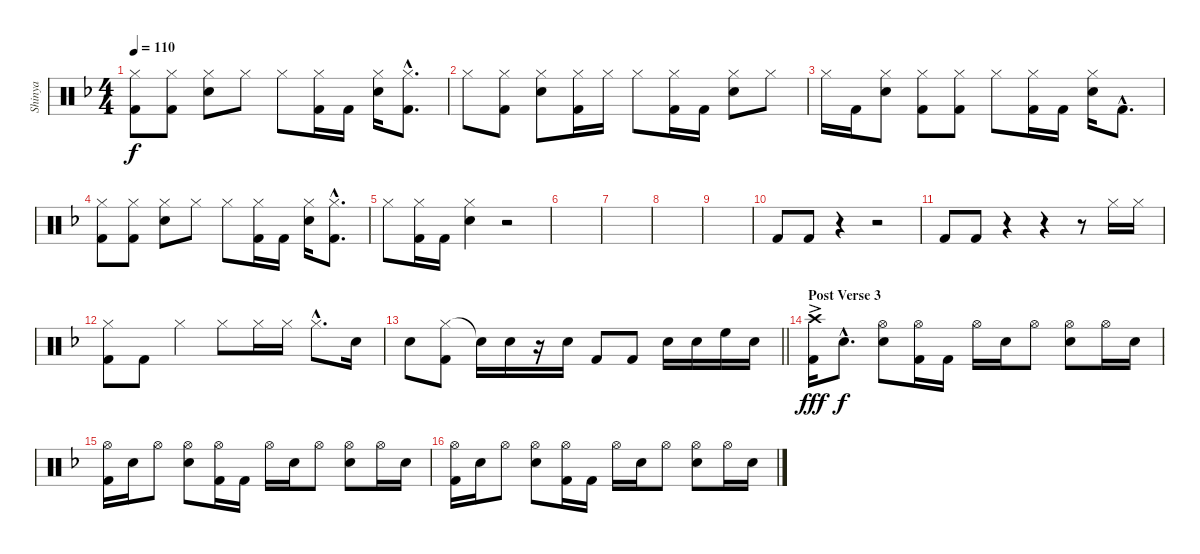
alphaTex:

\track ("Shinya" "Shinya") {instrument percussion}
\staff {score}
\articulation defaults
\ts (4 4)
\tempo 110
\clef neutral
\ks f
("Hi-Hat (closed)" "Kick (hit) 2").8{dy f} ("Hi-Hat (closed)" "Kick (hit) 2").8 ("Hi-Hat (closed)" "Snare (hit) 2").8 "Hi-Hat (closed)".8 "Hi-Hat (closed)".8 ("Hi-Hat (closed)" "Kick (hit) 2").16 "Kick (hit) 2".16 ("Hi-Hat (closed)" "Snare (hit) 2").16 ("Hi-Hat (closed)"{hac} "Kick (hit) 2"{hac}).8{d} |
"Hi-Hat (closed)".8 ("Hi-Hat (closed)" "Kick (hit) 2").8 ("Hi-Hat (closed)" "Snare (hit) 2").8 ("Hi-Hat (closed)" "Kick (hit) 2").16 "Hi-Hat (closed)".16 "Hi-Hat (closed)".8 ("Hi-Hat (closed)" "Kick (hit) 2").16 "Kick (hit) 2".16 ("Hi-Hat (closed)" "Snare (hit) 2").8 "Hi-Hat (closed)".8 |
"Hi-Hat (closed)".16 "Kick (hit) 2".16 ("Hi-Hat (closed)" "Snare (hit) 2").8 ("Hi-Hat (closed)" "Kick (hit) 2").8 ("Hi-Hat (closed)" "Kick (hit) 2").8 "Hi-Hat (closed)".8 ("Hi-Hat (closed)" "Kick (hit) 2").16 "Kick (hit) 2".16 ("Hi-Hat (closed)" "Snare (hit) 2").16 "Kick (hit) 2"{hac}.8{d} |
("Hi-Hat (closed)" "Kick (hit) 2").8 ("Hi-Hat (closed)" "Kick (hit) 2").8 ("Hi-Hat (closed)" "Snare (hit) 2").8 "Hi-Hat (closed)".8 "Hi-Hat (closed)".8 ("Hi-Hat (closed)" "Kick (hit) 2").16 "Kick (hit) 2".16 ("Hi-Hat (closed)" "Snare (hit) 2").16 ("Hi-Hat (closed)"{hac} "Kick (hit) 2"{hac}).8{d} |
"Hi-Hat (closed)".8 ("Hi-Hat (closed)" "Kick (hit) 2").16 "Kick (hit) 2".16 ("Hi-Hat (closed)" "Snare (hit) 2").4 r.2 |
|
|
|
|
"Kick (hit) 2".8 "Kick (hit) 2".8 r.4 r.2 |
"Kick (hit) 2".8 "Kick (hit) 2".8 r.4 r.4 r.8 "Hi-Hat (closed)".16 "Hi-Hat (closed)".16 |
("Hi-Hat (closed)" "Kick (hit) 2").8 "Kick (hit) 2".8 "Hi-Hat (closed)".4 "Hi-Hat (closed)".8 "Hi-Hat (closed)".16 "Hi-Hat (closed)".16 "Hi-Hat (closed)"{hac}.8{d} "Snare (hit) 2".16 |
\barLineRight lightlight "Snare (hit) 2".8
("Hi-Hat (closed)" "Kick (hit) 2").8 "Snare (hit)"{t}.16 "Snare (hit) 2".16 r.16 "Snare (hit) 2".16 "Kick (hit) 2".8 "Kick (hit) 2".8 "Snare (hit) 2".16 "Snare (hit) 2".16 "High Floor Tom (hit)".16 "Snare (hit) 2".16 |
\section ("" "Post Verse 3")
("Crash high (hit)"{ac} "Kick (hit) 2").16{dy fff volume 15} "Snare (hit) 2"{hac}.8{d dy f} ("Hi-Hat (open)" "Snare (hit) 2").8 ("Hi-Hat (open)" "Kick (hit) 2").16 "Kick (hit) 2".16 "Hi-Hat (open)".16 "Snare (hit) 2".16 "Hi-Hat (open)".8 ("Hi-Hat (open)" "Snare (hit) 2").8 "Hi-Hat (open)".16 "Snare (hit) 2".16 |
("Hi-Hat (open)" "Kick (hit) 2").16 "Snare (hit) 2".16 "Hi-Hat (open)".8 ("Hi-Hat (open)" "Snare (hit) 2").8 ("Hi-Hat (open)" "Kick (hit) 2").16 "Kick (hit) 2".16 "Hi-Hat (open)".16 "Snare (hit) 2".16 "Hi-Hat (open)".8 ("Hi-Hat (open)" "Snare (hit) 2").8 "Hi-Hat (open)".16 "Snare (hit) 2".16 |
("Hi-Hat (open)" "Kick (hit) 2").16 "Snare (hit) 2".16 "Hi-Hat (open)".8 ("Hi-Hat (open)" "Snare (hit) 2").8 ("Hi-Hat (open)" "Kick (hit) 2").16 "Kick (hit) 2".16 "Hi-Hat (open)".16 "Snare (hit) 2".16 "Hi-Hat (open)".8 ("Hi-Hat (open)" "Snare (hit) 2").8 "Hi-Hat (open)".16 "Snare (hit) 2".16
